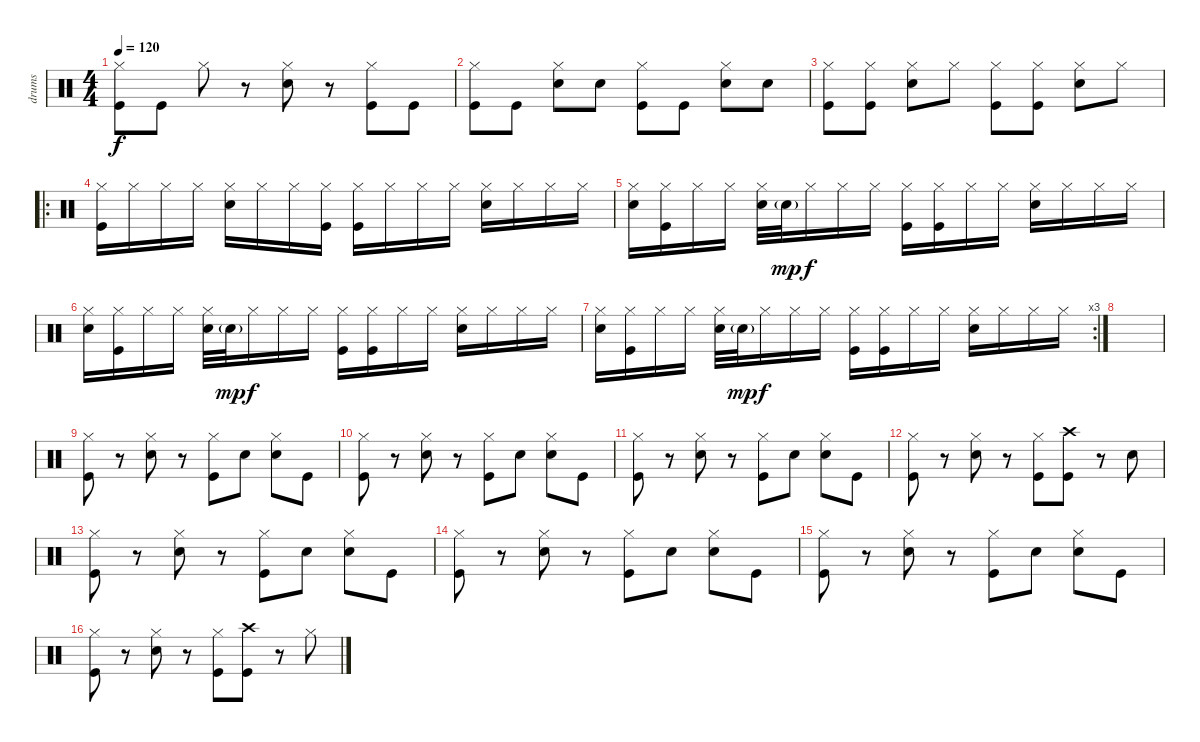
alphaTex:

\track ("drums" "drums") {instrument percussion}
\staff {score}
\articulation defaults
\ts (4 4)
\tempo 120
\clef neutral
\ks c
("Hi-Hat (closed)" "Kick (hit)").8{dy f} "Kick (hit)".8 "Hi-Hat (closed)".8 r.8 ("Hi-Hat (closed)" "Electric Snare (hit)").8 r.8 ("Hi-Hat (closed)" "Kick (hit)").8 "Kick (hit)".8 |
("Hi-Hat (closed)" "Kick (hit)").8 "Kick (hit)".8 ("Hi-Hat (closed)" "Electric Snare (hit)").8 "Electric Snare (hit)".8 ("Hi-Hat (closed)" "Kick (hit)").8 "Kick (hit)".8 ("Hi-Hat (closed)" "Electric Snare (hit)").8 "Electric Snare (hit)".8 |
("Hi-Hat (closed)" "Kick (hit)").8 ("Hi-Hat (closed)" "Kick (hit)").8 ("Hi-Hat (closed)" "Electric Snare (hit)").8 "Hi-Hat (closed)".8 ("Hi-Hat (closed)" "Kick (hit)").8 ("Hi-Hat (closed)" "Kick (hit)").8 ("Hi-Hat (closed)" "Electric Snare (hit)").8 "Hi-Hat (closed)".8 |
\ro
("Hi-Hat (closed)" "Kick (hit)").16 "Hi-Hat (closed)".16 "Hi-Hat (closed)".16 "Hi-Hat (closed)".16 ("Hi-Hat (closed)" "Electric Snare (hit)").16 "Hi-Hat (closed)".16 "Hi-Hat (closed)".16 ("Hi-Hat (closed)" "Kick (hit)").16 ("Hi-Hat (closed)" "Kick (hit)").16 "Hi-Hat (closed)".16 "Hi-Hat (closed)".16 "Hi-Hat (closed)".16 ("Hi-Hat (closed)" "Electric Snare (hit)").16 "Hi-Hat (closed)".16 "Hi-Hat (closed)".16 "Hi-Hat (closed)".16 |
("Hi-Hat (closed)" "Electric Snare (hit)").16 ("Hi-Hat (closed)" "Kick (hit)").16 "Hi-Hat (closed)".16 "Hi-Hat (closed)".16 ("Hi-Hat (closed)" "Electric Snare (hit)").32 "Electric Snare (hit)"{g}.32{dy mp} "Hi-Hat (closed)".16{dy f} "Hi-Hat (closed)".16 "Hi-Hat (closed)".16 ("Hi-Hat (closed)" "Kick (hit)").16 ("Hi-Hat (closed)" "Kick (hit)").16 "Hi-Hat (closed)".16 "Hi-Hat (closed)".16 ("Hi-Hat (closed)" "Electric Snare (hit)").16 "Hi-Hat (closed)".16 "Hi-Hat (closed)".16 "Hi-Hat (closed)".16 |
("Hi-Hat (closed)" "Electric Snare (hit)").16 ("Hi-Hat (closed)" "Kick (hit)").16 "Hi-Hat (closed)".16 "Hi-Hat (closed)".16 ("Hi-Hat (closed)" "Electric Snare (hit)").32 "Electric Snare (hit)"{g}.32{dy mp} "Hi-Hat (closed)".16{dy f} "Hi-Hat (closed)".16 "Hi-Hat (closed)".16 ("Hi-Hat (closed)" "Kick (hit)").16 ("Hi-Hat (closed)" "Kick (hit)").16 "Hi-Hat (closed)".16 "Hi-Hat (closed)".16 ("Hi-Hat (closed)" "Electric Snare (hit)").16 "Hi-Hat (closed)".16 "Hi-Hat (closed)".16 "Hi-Hat (closed)".16 |
\rc 3
("Hi-Hat (closed)" "Electric Snare (hit)").16 ("Hi-Hat (closed)" "Kick (hit)").16 "Hi-Hat (closed)".16 "Hi-Hat (closed)".16 ("Hi-Hat (closed)" "Electric Snare (hit)").32 "Electric Snare (hit)"{g}.32{dy mp} "Hi-Hat (closed)".16{dy f} "Hi-Hat (closed)".16 "Hi-Hat (closed)".16 ("Hi-Hat (closed)" "Kick (hit)").16 ("Hi-Hat (closed)" "Kick (hit)").16 "Hi-Hat (closed)".16 "Hi-Hat (closed)".16 ("Hi-Hat (closed)" "Electric Snare (hit)").16 "Hi-Hat (closed)".16 "Hi-Hat (closed)".16 "Hi-Hat (closed)".16 |
|
("Hi-Hat (closed)" "Kick (hit)").8 r.8 ("Hi-Hat (closed)" "Electric Snare (hit)").8 r.8 ("Hi-Hat (closed)" "Kick (hit)").8 "Electric Snare (hit)".8 ("Hi-Hat (closed)" "Electric Snare (hit)").8 "Kick (hit)".8 |
("Hi-Hat (closed)" "Kick (hit)").8 r.8 ("Hi-Hat (closed)" "Electric Snare (hit)").8 r.8 ("Hi-Hat (closed)" "Kick (hit)").8 "Electric Snare (hit)".8 ("Hi-Hat (closed)" "Electric Snare (hit)").8 "Kick (hit)".8 |
("Hi-Hat (closed)" "Kick (hit)").8 r.8 ("Hi-Hat (closed)" "Electric Snare (hit)").8 r.8 ("Hi-Hat (closed)" "Kick (hit)").8 "Electric Snare (hit)".8 ("Hi-Hat (closed)" "Electric Snare (hit)").8 "Kick (hit)".8 |
("Hi-Hat (closed)" "Kick (hit)").8 r.8 ("Hi-Hat (closed)" "Electric Snare (hit)").8 r.8 ("Hi-Hat (closed)" "Kick (hit)").8 ("Crash high (hit)" "Kick (hit)").8 r.8 "Electric Snare (hit)".8 |
("Hi-Hat (closed)" "Kick (hit)").8 r.8 ("Hi-Hat (closed)" "Electric Snare (hit)").8 r.8 ("Hi-Hat (closed)" "Kick (hit)").8 "Electric Snare (hit)".8 ("Hi-Hat (closed)" "Electric Snare (hit)").8 "Kick (hit)".8 |
("Hi-Hat (closed)" "Kick (hit)").8 r.8 ("Hi-Hat (closed)" "Electric Snare (hit)").8 r.8 ("Hi-Hat (closed)" "Kick (hit)").8 "Electric Snare (hit)".8 ("Hi-Hat (closed)" "Electric Snare (hit)").8 "Kick (hit)".8 |
("Hi-Hat (closed)" "Kick (hit)").8 r.8 ("Hi-Hat (closed)" "Electric Snare (hit)").8 r.8 ("Hi-Hat (closed)" "Kick (hit)").8 "Electric Snare (hit)".8 ("Hi-Hat (closed)" "Electric Snare (hit)").8 "Kick (hit)".8 |
("Hi-Hat (closed)" "Kick (hit)").8 r.8 ("Hi-Hat (closed)" "Electric Snare (hit)").8 r.8 ("Hi-Hat (closed)" "Kick (hit)").8 ("Crash high (hit)" "Kick (hit)").8 r.8 "Hi-Hat (closed)".8
